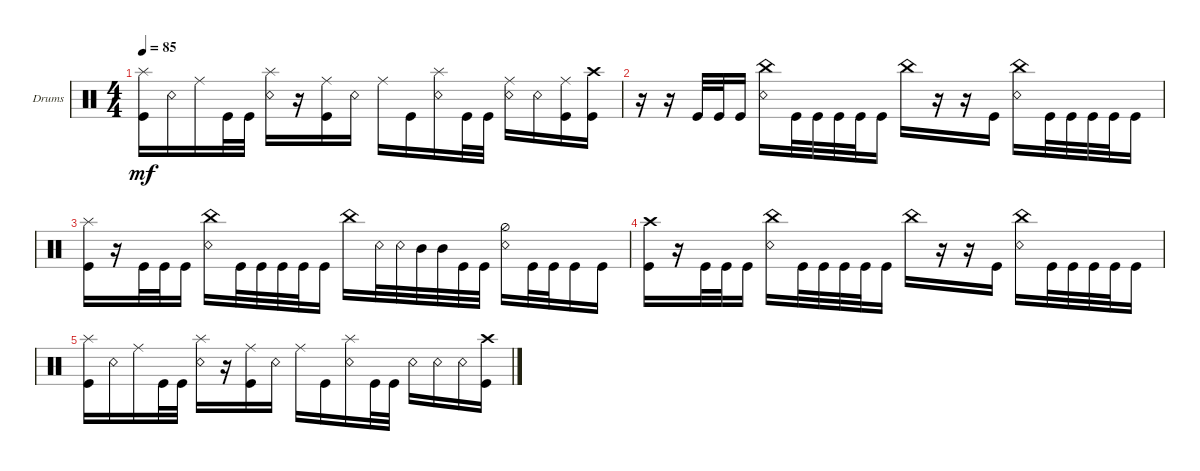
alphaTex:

\defaultSystemsLayout 4
\bracketExtendMode groupsimilarinstruments
\firstSystemTrackNameOrientation horizontal
\otherSystemsTrackNameOrientation horizontal
\track ("Drumkit" "Drums") {instrument percussion}
\staff {score}
\articulation defaults
\ts (4 4)
\tempo 85
\clef neutral
\ks c
("Kick (hit)" "Splash (hit)").16{dy mf} "Snare (rim shot)".16 "Ride (middle)".16 "Kick (hit)".32 "Kick (hit)".32 ("Snare (rim shot)" "Splash (hit)").16 r.16 ("Kick (hit)" "Ride (middle)").16 "Snare (rim shot)".16 "Ride (middle)".16 "Kick (hit)".16 ("Snare (rim shot)" "Splash (hit)").16 "Kick (hit)".32 "Kick (hit)".32 ("Snare (rim shot)" "Ride (middle)").16 "Snare (rim shot)".16 ("Kick (hit)" "Ride (middle)").16 ("Kick (hit)" "Crash high (hit)").16 |
r.16 r.16 "Kick (hit)".32 "Kick (hit)".32 "Kick (hit)".16 ("Snare (rim shot)" "China (hit)").16 "Kick (hit)".32 "Kick (hit)".32 "Kick (hit)".32 "Kick (hit)".32 "Kick (hit)".16 "China (hit)".16 r.16 r.16 "Kick (hit)".16 ("Snare (rim shot)" "China (hit)").16 "Kick (hit)".32 "Kick (hit)".32 "Kick (hit)".32 "Kick (hit)".32 "Kick (hit)".16 |
("Kick (hit)" "Splash (hit)").16 r.16 "Kick (hit)".32 "Kick (hit)".32 "Kick (hit)".16 ("Snare (rim shot)" "China (hit)").16 "Kick (hit)".32 "Kick (hit)".32 "Kick (hit)".32 "Kick (hit)".32 "Kick (hit)".16 "China (hit)".16 "Snare (rim shot)".32 "Snare (rim shot)".32 "Mid Tom (hit)".32 "Mid Tom (hit)".32 "Kick (hit)".32 "Kick (hit)".32 ("Snare (rim shot)" "Hi-Hat (half)").16 "Kick (hit)".32 "Kick (hit)".32 "Kick (hit)".16 "Kick (hit)".16 |
("Crash high (hit)" "Kick (hit)").16 r.16 "Kick (hit)".32 "Kick (hit)".32 "Kick (hit)".16 ("Snare (rim shot)" "China (hit)").16 "Kick (hit)".32 "Kick (hit)".32 "Kick (hit)".32 "Kick (hit)".32 "Kick (hit)".16 "China (hit)".16 r.16 r.16 "Kick (hit)".16 ("Snare (rim shot)" "China (hit)").16 "Kick (hit)".32 "Kick (hit)".32 "Kick (hit)".32 "Kick (hit)".32 "Kick (hit)".16 |
("Kick (hit)" "Splash (hit)").16 "Snare (rim shot)".16 "Ride (middle)".16 "Kick (hit)".32 "Kick (hit)".32 ("Snare (rim shot)" "Splash (hit)").16 r.16 ("Kick (hit)" "Ride (middle)").16 "Snare (rim shot)".16 "Ride (middle)".16 "Kick (hit)".16 ("Snare (rim shot)" "Splash (hit)").16 "Kick (hit)".32 "Kick (hit)".32 "Snare (rim shot)".16 "Snare (rim shot)".16 "Snare (rim shot)".16 ("Kick (hit)" "Crash high (hit)").16
